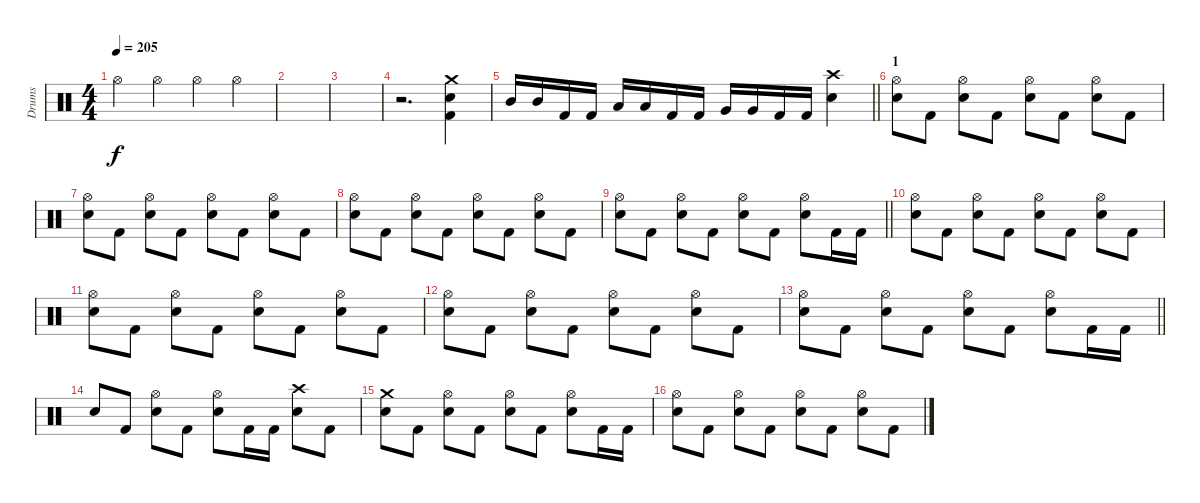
\track ("Drums" "Drums") {instrument percussion}
\staff {score}
\articulation defaults
\ts (4 4)
\tempo 205
\clef neutral
\ks c "Hi-Hat (open)".4{dy f} "Hi-Hat (open)".4 "Hi-Hat (open)".4 "Hi-Hat (open)".4
|
|
|
r.2{d} ("Crash medium (hit)" "Electric Snare (hit)" "Kick (hit) 2").4 |
\barLineRight lightlight "Mid Tom (hit)".16 "Mid Tom (hit)".16 "Kick (hit) 2".16 "Kick (hit) 2".16 "Low Tom (hit)".16 "Low Tom (hit)".16 "Kick (hit) 2".16 "Kick (hit) 2".16 "Very Low Tom (hit)".16 "Very Low Tom (hit)".16 "Kick (hit) 2".16 "Kick (hit) 2".16
("Crash high (hit)" "Electric Snare (hit)").4 |
\section ("" "1")
("Hi-Hat (open)" "Electric Snare (hit)").8 "Kick (hit) 2".8 ("Hi-Hat (open)" "Electric Snare (hit)").8 "Kick (hit) 2".8 ("Hi-Hat (open)" "Electric Snare (hit)").8 "Kick (hit) 2".8 ("Hi-Hat (open)" "Electric Snare (hit)").8 "Kick (hit) 2".8 |
("Hi-Hat (open)" "Electric Snare (hit)").8 "Kick (hit) 2".8 ("Hi-Hat (open)" "Electric Snare (hit)").8 "Kick (hit) 2".8 ("Hi-Hat (open)" "Electric Snare (hit)").8 "Kick (hit) 2".8 ("Hi-Hat (open)" "Electric Snare (hit)").8 "Kick (hit) 2".8 |
("Hi-Hat (open)" "Electric Snare (hit)").8 "Kick (hit) 2".8 ("Hi-Hat (open)" "Electric Snare (hit)").8 "Kick (hit) 2".8 ("Hi-Hat (open)" "Electric Snare (hit)").8 "Kick (hit) 2".8 ("Hi-Hat (open)" "Electric Snare (hit)").8 "Kick (hit) 2".8 |
\barLineRight lightlight
("Hi-Hat (open)" "Electric Snare (hit)").8 "Kick (hit) 2".8 ("Hi-Hat (open)" "Electric Snare (hit)").8 "Kick (hit) 2".8 ("Hi-Hat (open)" "Electric Snare (hit)").8 "Kick (hit) 2".8 ("Hi-Hat (open)" "Electric Snare (hit)").8 "Kick (hit) 2".16 "Kick (hit) 2".16 |
("Hi-Hat (open)" "Electric Snare (hit)").8 "Kick (hit) 2".8 ("Hi-Hat (open)" "Electric Snare (hit)").8 "Kick (hit) 2".8 ("Hi-Hat (open)" "Electric Snare (hit)").8 "Kick (hit) 2".8 ("Hi-Hat (open)" "Electric Snare (hit)").8 "Kick (hit) 2".8 |
("Hi-Hat (open)" "Electric Snare (hit)").8 "Kick (hit) 2".8 ("Hi-Hat (open)" "Electric Snare (hit)").8 "Kick (hit) 2".8 ("Hi-Hat (open)" "Electric Snare (hit)").8 "Kick (hit) 2".8 ("Hi-Hat (open)" "Electric Snare (hit)").8 "Kick (hit) 2".8 |
("Hi-Hat (open)" "Electric Snare (hit)").8 "Kick (hit) 2".8 ("Hi-Hat (open)" "Electric Snare (hit)").8 "Kick (hit) 2".8 ("Hi-Hat (open)" "Electric Snare (hit)").8 "Kick (hit) 2".8 ("Hi-Hat (open)" "Electric Snare (hit)").8 "Kick (hit) 2".8 |
\barLineRight lightlight
("Hi-Hat (open)" "Electric Snare (hit)").8 "Kick (hit) 2".8 ("Hi-Hat (open)" "Electric Snare (hit)").8 "Kick (hit) 2".8 ("Hi-Hat (open)" "Electric Snare (hit)").8 "Kick (hit) 2".8 ("Hi-Hat (open)" "Electric Snare (hit)").8 "Kick (hit) 2".16 "Kick (hit) 2".16 |
"Electric Snare (hit)".8 "Kick (hit) 2".8 ("Hi-Hat (open)" "Electric Snare (hit)").8 "Kick (hit) 2".8 ("Hi-Hat (open)" "Electric Snare (hit)").8 "Kick (hit) 2".16 "Kick (hit) 2".16 ("Crash high (hit)" "Electric Snare (hit)").8 "Kick (hit) 2".8 |
("Crash medium (hit)" "Electric Snare (hit)").8 "Kick (hit) 2".8 ("Hi-Hat (open)" "Electric Snare (hit)").8 "Kick (hit) 2".8 ("Hi-Hat (open)" "Electric Snare (hit)").8 "Kick (hit) 2".8 ("Hi-Hat (open)" "Electric Snare (hit)").8 "Kick (hit) 2".16 "Kick (hit) 2".16 |
("Hi-Hat (open)" "Electric Snare (hit)").8 "Kick (hit) 2".8 ("Hi-Hat (open)" "Electric Snare (hit)").8 "Kick (hit) 2".8 ("Hi-Hat (open)" "Electric Snare (hit)").8 "Kick (hit) 2".8 ("Hi-Hat (open)" "Electric Snare (hit)").8 "Kick (hit) 2".8
